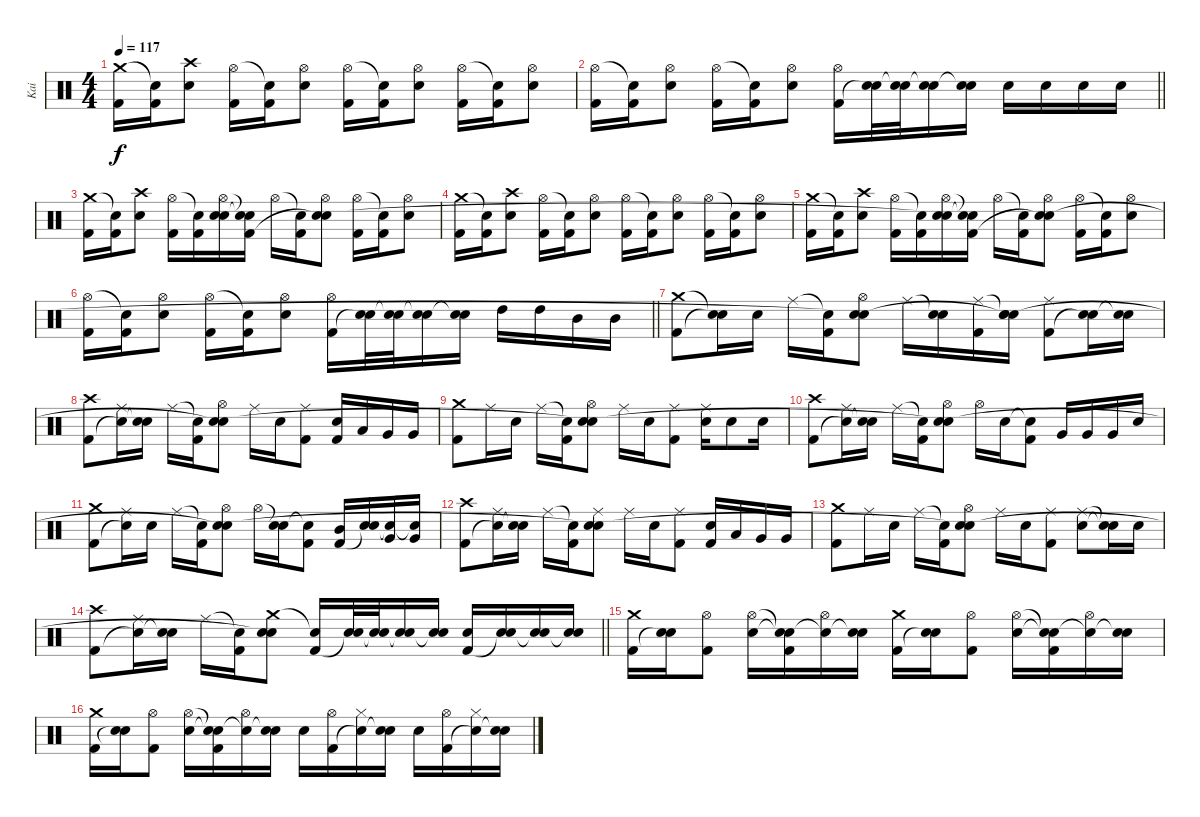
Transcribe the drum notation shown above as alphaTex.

\track ("Kai" "Kai") {instrument percussion}
\staff {score}
\articulation defaults
\ts (4 4)
\tempo 117
\clef neutral
\ks c
("Crash medium (hit)" "Kick (hit) 2").16{dy f} ("Snare (hit)"{t} "Kick (hit) 2").16 ("Crash high (hit)" "Snare (hit) 2").8 ("Hi-Hat (open)" "Kick (hit) 2").16 ("Snare (hit)"{t} "Kick (hit) 2").16 ("Hi-Hat (open)" "Snare (hit) 2").8 ("Hi-Hat (open)" "Kick (hit) 2").16 ("Snare (hit)"{t} "Kick (hit) 2").16 ("Hi-Hat (open)" "Snare (hit) 2").8 ("Hi-Hat (open)" "Kick (hit) 2").16 ("Snare (hit)"{t} "Kick (hit) 2").16 ("Hi-Hat (open)" "Snare (hit) 2").8 |
\barLineRight lightlight
("Hi-Hat (open)" "Kick (hit) 2").16 ("Snare (hit)"{t} "Kick (hit) 2").16 ("Hi-Hat (open)" "Snare (hit) 2").8 ("Hi-Hat (open)" "Kick (hit) 2").16 ("Snare (hit)"{t} "Kick (hit) 2").16 ("Hi-Hat (open)" "Snare (hit) 2").8 ("Hi-Hat (open)" "Kick (hit) 2").16 ("Snare (hit) 2" "Snare (hit)"{t}).32 ("Snare (hit) 2" "Snare (hit)"{t}).32 ("Snare (hit) 2" "Snare (hit)"{t}).16 ("Snare (hit) 2" "Snare (hit)"{t}).16 "Snare (hit) 2".16 "Snare (hit) 2".16 "Snare (hit) 2".16 "Snare (hit) 2".16 |
("Crash medium (hit)" "Kick (hit) 2").16 ("Snare (hit)"{t} "Kick (hit) 2").16 ("Crash high (hit)" "Snare (hit) 2").8 ("Hi-Hat (open)" "Kick (hit) 2").16 ("Snare (hit)"{t} "Kick (hit) 2").16 ("Hi-Hat (open)" "Snare (hit) 2" "Snare (hit)"{t}).16 ("Snare (hit)"{t} "Snare (hit)"{t} "Kick (hit) 2").16 "Hi-Hat (open)".16 ("Snare (hit)"{t} "Kick (hit) 2").16 ("Hi-Hat (open)" "Snare (hit) 2" "Snare (hit)"{t}).8 ("Hi-Hat (open)" "Kick (hit) 2").16 ("Snare (hit)"{t} "Kick (hit) 2").16 ("Hi-Hat (open)" "Snare (hit) 2").8 |
("Crash medium (hit)" "Kick (hit) 2").16 ("Snare (hit)"{t} "Kick (hit) 2").16 ("Crash high (hit)" "Snare (hit) 2").8 ("Hi-Hat (open)" "Kick (hit) 2").16 ("Snare (hit)"{t} "Kick (hit) 2").16 ("Hi-Hat (open)" "Snare (hit) 2").8 ("Hi-Hat (open)" "Kick (hit) 2").16 ("Snare (hit)"{t} "Kick (hit) 2").16 ("Hi-Hat (open)" "Snare (hit) 2").8 ("Hi-Hat (open)" "Kick (hit) 2").16 ("Snare (hit)"{t} "Kick (hit) 2").16 ("Hi-Hat (open)" "Snare (hit) 2").8 |
("Crash medium (hit)" "Kick (hit) 2").16 ("Snare (hit)"{t} "Kick (hit) 2").16 ("Crash high (hit)" "Snare (hit) 2").8 ("Hi-Hat (open)" "Kick (hit) 2").16 ("Snare (hit)"{t} "Kick (hit) 2").16 ("Hi-Hat (open)" "Snare (hit) 2" "Snare (hit)"{t}).16 ("Snare (hit)"{t} "Snare (hit)"{t} "Kick (hit) 2").16 "Hi-Hat (open)".16 ("Snare (hit)"{t} "Kick (hit) 2").16 ("Hi-Hat (open)" "Snare (hit) 2" "Snare (hit)"{t}).8 ("Hi-Hat (open)" "Kick (hit) 2").16 ("Snare (hit)"{t} "Kick (hit) 2").16 ("Hi-Hat (open)" "Snare (hit) 2").8 |
\barLineRight lightlight
("Hi-Hat (open)" "Kick (hit) 2").16 ("Snare (hit)"{t} "Kick (hit) 2").16 ("Hi-Hat (open)" "Snare (hit) 2").8 ("Hi-Hat (open)" "Kick (hit) 2").16 ("Snare (hit)"{t} "Kick (hit) 2").16 ("Hi-Hat (open)" "Snare (hit) 2").8 ("Hi-Hat (open)" "Kick (hit) 2").16 ("Snare (hit) 2" "Snare (hit)"{t}).32 ("Snare (hit) 2" "Snare (hit)"{t}).32 ("Snare (hit) 2" "Snare (hit)"{t}).16 ("Snare (hit) 2" "Snare (hit)"{t}).16 "High Tom (hit)".16 "High Tom (hit)".16 "Mid Tom (hit)".16 "Mid Tom (hit)".16 |
("Crash medium (hit)" "Kick (hit) 2").8 ("Snare (hit)"{t} "Snare (hit)"{t}).16 "Snare (hit) 2".16 "Ride (middle)".16 ("Snare (hit)"{t} "Kick (hit) 2").16 ("Hi-Hat (open)" "Snare (hit) 2" "Snare (hit)"{t}).8 "Ride (middle)".16 ("Snare (hit)"{t} "Snare (hit) 2").16 ("Ride (middle)" "Kick (hit) 2").16 ("Snare (hit)"{t} "Snare (hit) 2" "Snare (hit)"{t}).16 ("Ride (middle)" "Kick (hit) 2").8 ("Snare (hit) 2" "Snare (hit)"{t}).16 ("Snare (hit) 2" "Snare (hit)"{t}).16 |
("Crash high (hit)" "Kick (hit) 2").8 ("Ride (middle)" "Snare (hit)"{t}).16 ("Snare (hit) 2" "Snare (hit)"{t}).16 "Ride (middle)".16 ("Snare (hit)"{t} "Kick (hit) 2").16 ("Hi-Hat (open)" "Snare (hit) 2" "Snare (hit)"{t}).8 "Ride (middle)".16 "Snare (hit) 2".16 ("Ride (middle)" "Kick (hit) 2").8 ("Snare (hit) 2" "Kick (hit) 2").16 "Low Tom (hit)".16 "Very Low Tom (hit)".16 "Very Low Tom (hit)".16 |
("Crash medium (hit)" "Kick (hit) 2").8 "Ride (middle)".16 "Snare (hit) 2".16 "Ride (middle)".16 ("Snare (hit)"{t} "Kick (hit) 2").16 ("Hi-Hat (open)" "Snare (hit) 2" "Snare (hit)"{t}).8 "Ride (middle)".16 "Snare (hit) 2".16 ("Ride (middle)" "Kick (hit) 2").8 ("Ride (middle)" "Snare (hit) 2").16 "Snare (hit) 2".8 "Snare (hit) 2".16 |
("Crash high (hit)" "Kick (hit) 2").8 ("Ride (middle)" "Snare (hit)"{t}).16 ("Snare (hit) 2" "Snare (hit)"{t}).16 "Ride (middle)".16 ("Snare (hit)"{t} "Kick (hit) 2").16 ("Hi-Hat (open)" "Snare (hit) 2" "Snare (hit)"{t}).8 "Hi-Hat (open)".16 "Snare (hit) 2".16 ("Snare (hit)"{t} "Kick (hit) 2").8 "Very Low Tom (hit)".16 "Very Low Tom (hit)".16 "Very Low Tom (hit)".16 "Snare (hit) 2".16 |
("Crash medium (hit)" "Kick (hit) 2").8 ("Ride (middle)" "Snare (hit)"{t}).16 "Snare (hit) 2".16 "Ride (middle)".16 ("Snare (hit)"{t} "Kick (hit) 2").16 ("Hi-Hat (open)" "Snare (hit) 2" "Snare (hit)"{t}).8 "Hi-Hat (open)".16 ("Snare (hit)"{t} "Snare (hit) 2").16 ("Snare (hit)"{t} "Kick (hit) 2").8 ("Mid Tom (hit)" "Kick (hit) 2").16 ("Snare (hit) 2" "Snare (hit)"{t}).16 ("Very Low Tom (hit)" "Snare (hit)"{t}).16 ("Very Low Tom (hit)" "Snare (hit)"{t}).16 |
("Crash high (hit)" "Kick (hit) 2").8 ("Ride (middle)" "Snare (hit)"{t}).16 ("Snare (hit) 2" "Snare (hit)"{t}).16 "Ride (middle)".16 ("Snare (hit)"{t} "Kick (hit) 2").16 ("Ride (middle)" "Snare (hit) 2" "Snare (hit)"{t}).8 "Ride (middle)".16 "Snare (hit) 2".16 ("Ride (middle)" "Kick (hit) 2").8 ("Snare (hit) 2" "Kick (hit) 2").16 "Low Tom (hit)".16 "Very Low Tom (hit)".16 "Very Low Tom (hit)".16 |
("Crash medium (hit)" "Kick (hit) 2").8 "Ride (middle)".16 "Snare (hit) 2".16 "Ride (middle)".16 ("Snare (hit)"{t} "Kick (hit) 2").16 ("Hi-Hat (open)" "Snare (hit) 2" "Snare (hit)"{t}).8 "Ride (middle)".16 "Snare (hit) 2".16 ("Ride (middle)" "Kick (hit) 2").8 ("Ride (middle)" "Snare (hit) 2").8 ("Snare (hit)"{t} "Snare (hit) 2"{t}).16 "Snare (hit) 2".16 |
\barLineRight lightlight
("Crash high (hit)" "Kick (hit) 2").8 ("Ride (middle)" "Snare (hit)"{t}).16 ("Snare (hit) 2" "Snare (hit)"{t}).16 "Ride (middle)".16 ("Snare (hit)"{t} "Kick (hit) 2").16 ("Crash medium (hit)" "Snare (hit) 2" "Snare (hit)"{t}).8 ("Snare (hit)"{t} "Kick (hit) 2").16 ("Snare (hit) 2" "Snare (hit)"{t}).32 ("Snare (hit) 2" "Snare (hit)"{t}).32 ("Snare (hit) 2" "Snare (hit)"{t}).16 ("Snare (hit) 2" "Snare (hit)"{t}).16 ("Snare (hit) 2" "Kick (hit) 2").16 ("Snare (hit) 2" "Snare (hit)"{t}).16 ("Snare (hit) 2" "Snare (hit)"{t}).16 ("Snare (hit) 2" "Snare (hit)"{t}).16 |
("Crash medium (hit)" "Kick (hit) 2").16{volume 14} ("Snare (hit) 2" "Snare (hit)"{t}).16 ("Hi-Hat (open)" "Kick (hit) 2").8 ("Hi-Hat (open)" "Snare (hit) 2").16 ("Snare (hit)"{t} "Snare (hit)"{t} "Kick (hit) 2").16 ("Hi-Hat (open)" "Snare (hit)"{t}).16 ("Snare (hit) 2" "Snare (hit)"{t}).16 ("Crash medium (hit)" "Kick (hit) 2").16 ("Snare (hit) 2" "Snare (hit)"{t}).16 ("Hi-Hat (open)" "Kick (hit) 2").8 ("Hi-Hat (open)" "Snare (hit) 2").16 ("Snare (hit)"{t} "Snare (hit)"{t} "Kick (hit) 2").16 ("Hi-Hat (open)" "Snare (hit)"{t}).16 ("Snare (hit) 2" "Snare (hit)"{t}).16 |
("Crash medium (hit)" "Kick (hit) 2").16 ("Snare (hit) 2" "Snare (hit)"{t}).16 ("Hi-Hat (open)" "Kick (hit) 2").8 ("Hi-Hat (open)" "Snare (hit) 2").16 ("Snare (hit)"{t} "Snare (hit)"{t} "Kick (hit) 2").16 ("Hi-Hat (open)" "Snare (hit)"{t}).16 ("Snare (hit) 2" "Snare (hit)"{t}).16 "Snare (hit) 2".16 ("Hi-Hat (open)" "Kick (hit) 2").16 ("Hi-Hat (closed)" "Snare (hit)"{t}).16 ("Snare (hit) 2" "Snare (hit)"{t}).16 "Snare (hit) 2".16 ("Hi-Hat (open)" "Kick (hit) 2").16 ("Hi-Hat (closed)" "Snare (hit)"{t}).16 ("Snare (hit) 2" "Snare (hit)"{t}).16
